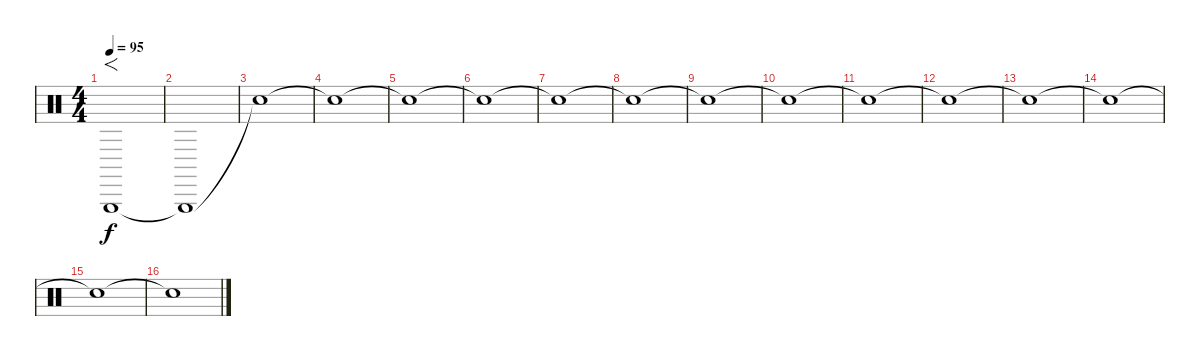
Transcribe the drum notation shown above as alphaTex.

\track "" {instrument percussion}
\staff {score}
\articulation defaults
\ts (4 4)
\tempo 95
\clef neutral
\ks c "Triangle (hit)".1{f dy f}
|
"Triangle (hit)"{t}.1 |
"Snare (hit)"{t}.1 |
"Snare (hit)"{t}.1 |
"Snare (hit)"{t}.1 |
"Snare (hit)"{t}.1 |
"Snare (hit)"{t}.1 |
"Snare (hit)"{t}.1 |
"Snare (hit)"{t}.1 |
"Snare (hit)"{t}.1 |
"Snare (hit)"{t}.1 |
"Snare (hit)"{t}.1 |
"Snare (hit)"{t}.1 |
"Snare (hit)"{t}.1 |
"Snare (hit)"{t}.1 |
"Snare (hit)"{t}.1
